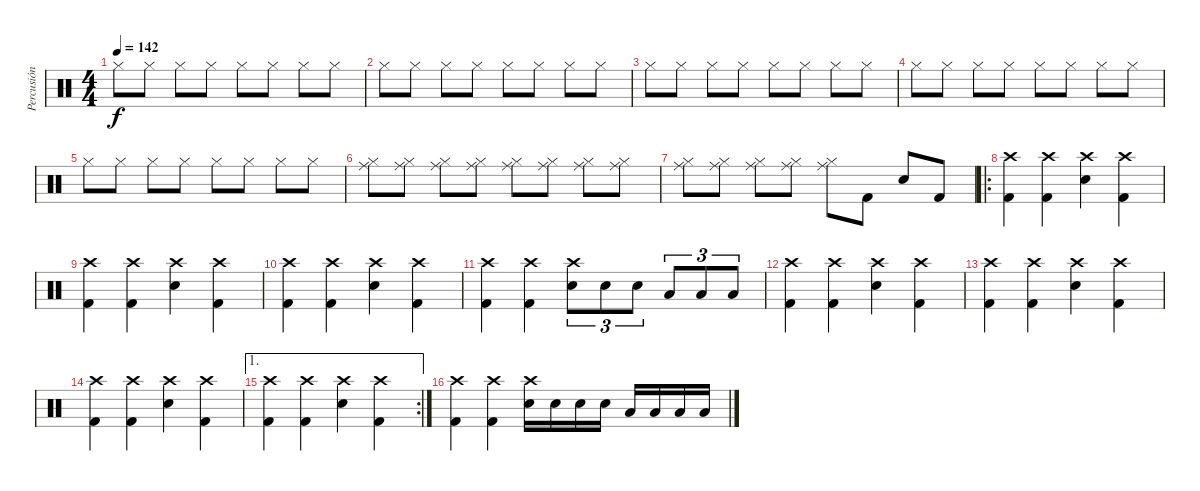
\track ("Percusión  " "Percusión ") {instrument percussion}
\staff {score}
\articulation defaults
\ts (4 4)
\tempo 142
\clef neutral
\ks c "Hi-Hat (closed)".8{dy f} "Hi-Hat (closed)".8 "Hi-Hat (closed)".8 "Hi-Hat (closed)".8 "Hi-Hat (closed)".8 "Hi-Hat (closed)".8 "Hi-Hat (closed)".8 "Hi-Hat (closed)".8
|
"Hi-Hat (closed)".8 "Hi-Hat (closed)".8 "Hi-Hat (closed)".8 "Hi-Hat (closed)".8 "Hi-Hat (closed)".8 "Hi-Hat (closed)".8 "Hi-Hat (closed)".8 "Hi-Hat (closed)".8 |
"Hi-Hat (closed)".8 "Hi-Hat (closed)".8 "Hi-Hat (closed)".8 "Hi-Hat (closed)".8 "Hi-Hat (closed)".8 "Hi-Hat (closed)".8 "Hi-Hat (closed)".8 "Hi-Hat (closed)".8 |
"Hi-Hat (closed)".8 "Hi-Hat (closed)".8 "Hi-Hat (closed)".8 "Hi-Hat (closed)".8 "Hi-Hat (closed)".8 "Hi-Hat (closed)".8 "Hi-Hat (closed)".8 "Hi-Hat (closed)".8 |
"Hi-Hat (closed)".8 "Hi-Hat (closed)".8 "Hi-Hat (closed)".8 "Hi-Hat (closed)".8 "Hi-Hat (closed)".8 "Hi-Hat (closed)".8 "Hi-Hat (closed)".8 "Hi-Hat (closed)".8 |
("Ride (middle)" "Hi-Hat (closed)").8 ("Ride (middle)" "Hi-Hat (closed)").8 ("Ride (middle)" "Hi-Hat (closed)").8 ("Ride (middle)" "Hi-Hat (closed)").8 ("Ride (middle)" "Hi-Hat (closed)").8 ("Ride (middle)" "Hi-Hat (closed)").8 ("Ride (middle)" "Hi-Hat (closed)").8 ("Ride (middle)" "Hi-Hat (closed)").8 |
("Ride (middle)" "Hi-Hat (closed)").8 ("Ride (middle)" "Hi-Hat (closed)").8 ("Ride (middle)" "Hi-Hat (closed)").8 ("Ride (middle)" "Hi-Hat (closed)").8 ("Ride (middle)" "Hi-Hat (closed)").8 "Kick (hit) 2".8 "Electric Snare (hit)".8 "Kick (hit) 2".8 |
\ro
("Crash high (hit)" "Kick (hit) 2").4 ("Crash high (hit)" "Kick (hit) 2").4 ("Crash high (hit)" "Electric Snare (hit)").4 ("Crash high (hit)" "Kick (hit) 2").4 |
("Crash high (hit)" "Kick (hit) 2").4 ("Crash high (hit)" "Kick (hit) 2").4 ("Crash high (hit)" "Electric Snare (hit)").4 ("Crash high (hit)" "Kick (hit) 2").4 |
("Crash high (hit)" "Kick (hit) 2").4 ("Crash high (hit)" "Kick (hit) 2").4 ("Crash high (hit)" "Electric Snare (hit)").4 ("Crash high (hit)" "Kick (hit) 2").4 |
("Crash high (hit)" "Kick (hit) 2").4 ("Crash high (hit)" "Kick (hit) 2").4 ("Crash high (hit)" "Electric Snare (hit)").8{tu (3 2)} "Electric Snare (hit)".8{tu (3 2)} "Electric Snare (hit)".8{tu (3 2)} "Low Tom (hit)".8{tu (3 2)} "Low Tom (hit)".8{tu (3 2)} "Low Tom (hit)".8{tu (3 2)} |
("Crash high (hit)" "Kick (hit) 2").4 ("Crash high (hit)" "Kick (hit) 2").4 ("Crash high (hit)" "Electric Snare (hit)").4 ("Crash high (hit)" "Kick (hit) 2").4 |
("Crash high (hit)" "Kick (hit) 2").4 ("Crash high (hit)" "Kick (hit) 2").4 ("Crash high (hit)" "Electric Snare (hit)").4 ("Crash high (hit)" "Kick (hit) 2").4 |
("Crash high (hit)" "Kick (hit) 2").4 ("Crash high (hit)" "Kick (hit) 2").4 ("Crash high (hit)" "Electric Snare (hit)").4 ("Crash high (hit)" "Kick (hit) 2").4 |
\ae 1
\rc 2
("Crash high (hit)" "Kick (hit) 2").4 ("Crash high (hit)" "Kick (hit) 2").4 ("Crash high (hit)" "Electric Snare (hit)").4 ("Crash high (hit)" "Kick (hit) 2").4 |
("Crash high (hit)" "Kick (hit) 2").4 ("Crash high (hit)" "Kick (hit) 2").4 ("Crash high (hit)" "Electric Snare (hit)").16 "Electric Snare (hit)".16 "Electric Snare (hit)".16 "Electric Snare (hit)".16 "Low Tom (hit)".16 "Low Tom (hit)".16 "Low Tom (hit)".16 "Low Tom (hit)".16
